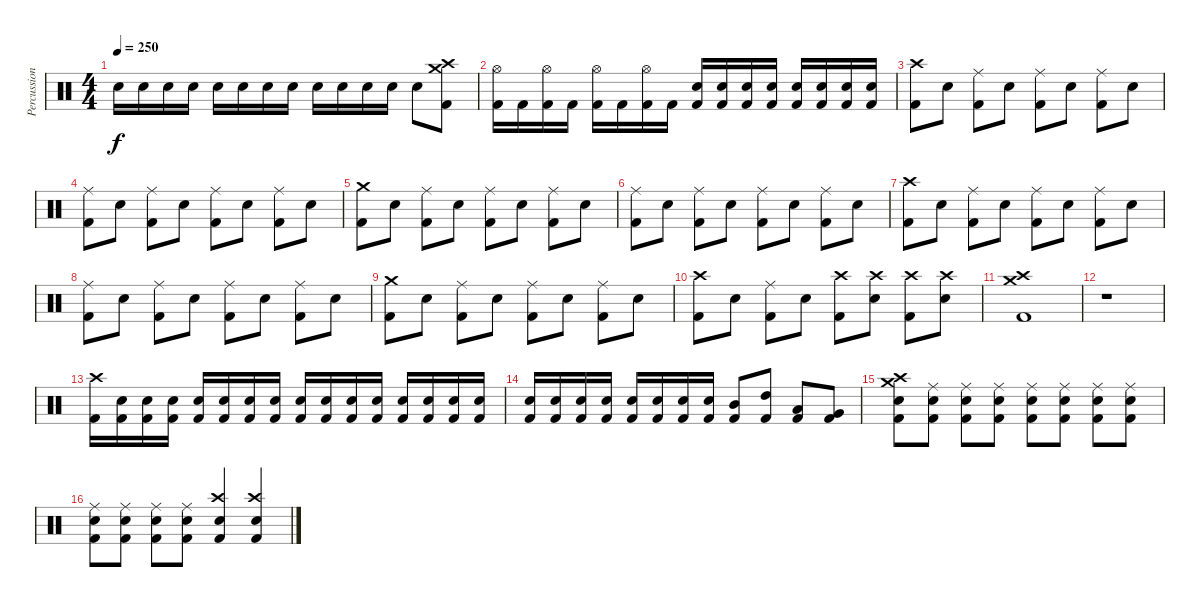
\track ("Percussion" "Percussion") {instrument percussion}
\staff {score}
\articulation defaults
\ts (4 4)
\tempo 250
\clef neutral
\ks c "Snare (hit) 2".16{dy f} "Snare (hit) 2".16 "Snare (hit) 2".16 "Snare (hit) 2".16 "Snare (hit) 2".16 "Snare (hit) 2".16 "Snare (hit) 2".16 "Snare (hit) 2".16 "Snare (hit) 2".16 "Snare (hit) 2".16 "Snare (hit) 2".16 "Snare (hit) 2".16 "Snare (hit) 2".8
("Crash medium (hit)" "Crash high (hit)" "Kick (hit) 2").8 |
("Hi-Hat (open)" "Kick (hit) 2").16 "Kick (hit) 2".16 ("Hi-Hat (open)" "Kick (hit) 2").16 "Kick (hit) 2".16 ("Hi-Hat (open)" "Kick (hit) 2").16 "Kick (hit) 2".16 ("Hi-Hat (open)" "Kick (hit) 2").16 "Kick (hit) 2".16 ("Snare (hit) 2" "Kick (hit) 2").16 ("Snare (hit) 2" "Kick (hit) 2").16 ("Snare (hit) 2" "Kick (hit) 2").16 ("Snare (hit) 2" "Kick (hit) 2").16 ("Snare (hit) 2" "Kick (hit) 2").16 ("Snare (hit) 2" "Kick (hit) 2").16 ("Snare (hit) 2" "Kick (hit) 2").16 ("Snare (hit) 2" "Kick (hit) 2").16 |
("Crash high (hit)" "Kick (hit) 2").8 "Snare (hit) 2".8 ("Ride (middle)" "Kick (hit) 2").8 "Snare (hit) 2".8 ("Ride (middle)" "Kick (hit) 2").8 "Snare (hit) 2".8 ("Ride (middle)" "Kick (hit) 2").8 "Snare (hit) 2".8 |
("Ride (middle)" "Kick (hit) 2").8 "Snare (hit) 2".8 ("Ride (middle)" "Kick (hit) 2").8 "Snare (hit) 2".8 ("Ride (middle)" "Kick (hit) 2").8 "Snare (hit) 2".8 ("Ride (middle)" "Kick (hit) 2").8 "Snare (hit) 2".8 |
("Crash medium (hit)" "Kick (hit) 2").8 "Snare (hit) 2".8 ("Ride (middle)" "Kick (hit) 2").8 "Snare (hit) 2".8 ("Ride (middle)" "Kick (hit) 2").8 "Snare (hit) 2".8 ("Ride (middle)" "Kick (hit) 2").8 "Snare (hit) 2".8 |
("Ride (middle)" "Kick (hit) 2").8 "Snare (hit) 2".8 ("Ride (middle)" "Kick (hit) 2").8 "Snare (hit) 2".8 ("Ride (middle)" "Kick (hit) 2").8 "Snare (hit) 2".8 ("Ride (middle)" "Kick (hit) 2").8 "Snare (hit) 2".8 |
("Crash high (hit)" "Kick (hit) 2").8 "Snare (hit) 2".8 ("Ride (middle)" "Kick (hit) 2").8 "Snare (hit) 2".8 ("Ride (middle)" "Kick (hit) 2").8 "Snare (hit) 2".8 ("Ride (middle)" "Kick (hit) 2").8 "Snare (hit) 2".8 |
("Ride (middle)" "Kick (hit) 2").8 "Snare (hit) 2".8 ("Ride (middle)" "Kick (hit) 2").8 "Snare (hit) 2".8 ("Ride (middle)" "Kick (hit) 2").8 "Snare (hit) 2".8 ("Ride (middle)" "Kick (hit) 2").8 "Snare (hit) 2".8 |
("Crash medium (hit)" "Kick (hit) 2").8 "Snare (hit) 2".8 ("Ride (middle)" "Kick (hit) 2").8 "Snare (hit) 2".8 ("Ride (middle)" "Kick (hit) 2").8 "Snare (hit) 2".8 ("Ride (middle)" "Kick (hit) 2").8 "Snare (hit) 2".8 |
("Crash high (hit)" "Kick (hit) 2").8 "Snare (hit) 2".8 ("Ride (middle)" "Kick (hit) 2").8 "Snare (hit) 2".8 ("Crash high (hit)" "Kick (hit) 2").8 ("Crash high (hit)" "Snare (hit) 2").8 ("Crash high (hit)" "Kick (hit) 2").8 ("Crash high (hit)" "Snare (hit) 2").8 |
("Crash high (hit)" "Crash medium (hit)" "Kick (hit) 2").1 |
r.1 |
("Crash high (hit)" "Kick (hit) 2").16 ("Snare (hit) 2" "Kick (hit) 2").16 ("Snare (hit) 2" "Kick (hit) 2").16 ("Snare (hit) 2" "Kick (hit) 2").16 ("Snare (hit) 2" "Kick (hit) 2").16 ("Snare (hit) 2" "Kick (hit) 2").16 ("Snare (hit) 2" "Kick (hit) 2").16 ("Snare (hit) 2" "Kick (hit) 2").16 ("Snare (hit) 2" "Kick (hit) 2").16 ("Snare (hit) 2" "Kick (hit) 2").16 ("Snare (hit) 2" "Kick (hit) 2").16 ("Snare (hit) 2" "Kick (hit) 2").16 ("Snare (hit) 2" "Kick (hit) 2").16 ("Snare (hit) 2" "Kick (hit) 2").16 ("Snare (hit) 2" "Kick (hit) 2").16 ("Snare (hit) 2" "Kick (hit) 2").16 |
("Snare (hit) 2" "Kick (hit) 2").16 ("Snare (hit) 2" "Kick (hit) 2").16 ("Snare (hit) 2" "Kick (hit) 2").16 ("Snare (hit) 2" "Kick (hit) 2").16 ("Snare (hit) 2" "Kick (hit) 2").16 ("Snare (hit) 2" "Kick (hit) 2").16 ("Snare (hit) 2" "Kick (hit) 2").16 ("Snare (hit) 2" "Kick (hit) 2").16 ("Mid Tom (hit)" "Kick (hit) 2").8 ("High Tom (hit)" "Kick (hit) 2").8 ("Low Tom (hit)" "Kick (hit) 2").8 ("Very Low Tom (hit)" "Kick (hit) 2").8 |
("Crash high (hit)" "Crash medium (hit)" "Snare (hit) 2" "Kick (hit) 2").8 ("Ride (middle)" "Snare (hit) 2" "Kick (hit) 2").8 ("Ride (middle)" "Snare (hit) 2" "Kick (hit) 2").8 ("Ride (middle)" "Snare (hit) 2" "Kick (hit) 2").8 ("Ride (middle)" "Snare (hit) 2" "Kick (hit) 2").8 ("Ride (middle)" "Snare (hit) 2" "Kick (hit) 2").8 ("Ride (middle)" "Snare (hit) 2" "Kick (hit) 2").8 ("Ride (middle)" "Snare (hit) 2" "Kick (hit) 2").8 |
("Ride (middle)" "Snare (hit) 2" "Kick (hit) 2").8 ("Ride (middle)" "Snare (hit) 2" "Kick (hit) 2").8 ("Ride (middle)" "Snare (hit) 2" "Kick (hit) 2").8 ("Ride (middle)" "Snare (hit) 2" "Kick (hit) 2").8 ("Crash high (hit)" "Snare (hit) 2" "Kick (hit) 2").4 ("Crash high (hit)" "Snare (hit) 2" "Kick (hit) 2").4
